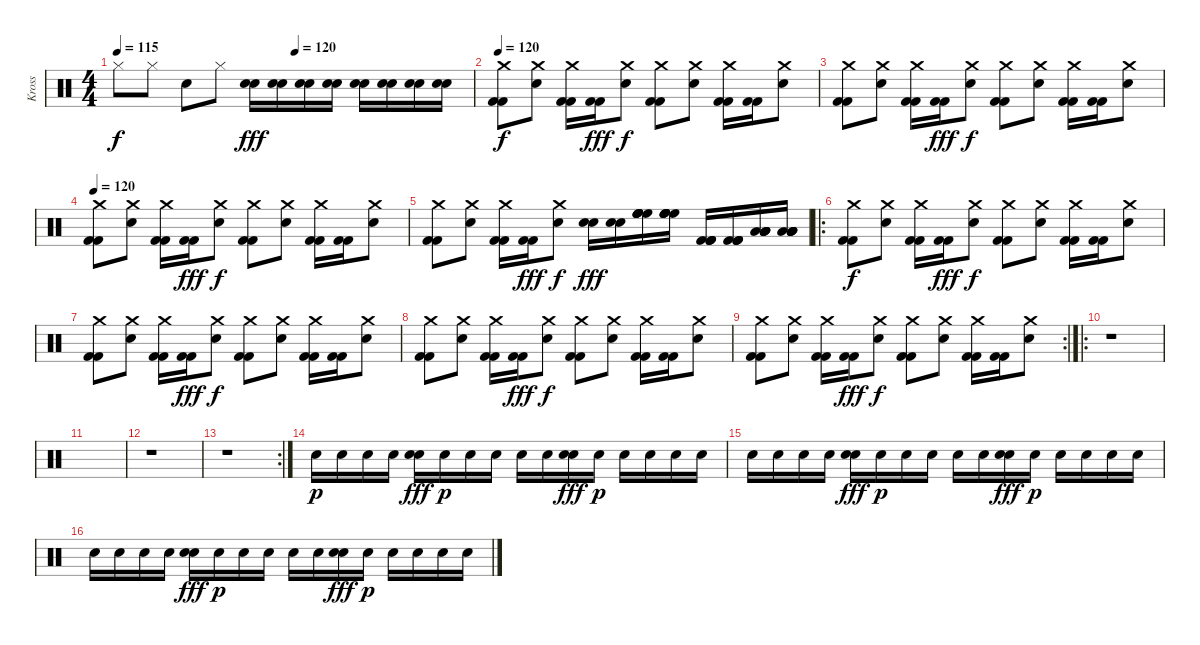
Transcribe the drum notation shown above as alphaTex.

\track ("Kross" "Kross") {instrument percussion}
\staff {score}
\articulation defaults
\ts (4 4)
\tempo (120 0.5)
\tempo 115
\clef neutral
\ks c "Hi-Hat (closed)".8{dy f} "Hi-Hat (closed)".8 "Snare (hit) 2".8 "Hi-Hat (closed)".8
("Snare (hit) 2" "Snare (hit) 2").16{dy fff} ("Snare (hit) 2" "Snare (hit) 2").16 ("Snare (hit) 2" "Snare (hit) 2").16 ("Snare (hit) 2" "Snare (hit) 2").16 ("Snare (hit) 2" "Snare (hit) 2").16 ("Snare (hit) 2" "Snare (hit) 2").16 ("Snare (hit) 2" "Snare (hit) 2").16 ("Snare (hit) 2" "Snare (hit) 2").16 |
\tempo 120
("Kick (hit) 2" "Kick (hit) 2" "Crash medium (hit)").8{dy f} ("Crash medium (hit)" "Snare (hit) 2").8 ("Kick (hit) 2" "Kick (hit) 2" "Crash medium (hit)").16 ("Kick (hit) 2" "Kick (hit) 2").16{dy fff} ("Crash medium (hit)" "Snare (hit) 2").8{dy f} ("Kick (hit) 2" "Kick (hit) 2" "Crash medium (hit)").8 ("Crash medium (hit)" "Snare (hit) 2").8 ("Kick (hit) 2" "Kick (hit) 2" "Crash medium (hit)").16 ("Kick (hit) 2" "Kick (hit) 2").16 ("Crash medium (hit)" "Snare (hit) 2").8 |
("Kick (hit) 2" "Kick (hit) 2" "Crash medium (hit)").8 ("Crash medium (hit)" "Snare (hit) 2").8 ("Kick (hit) 2" "Kick (hit) 2" "Crash medium (hit)").16 ("Kick (hit) 2" "Kick (hit) 2").16{dy fff} ("Crash medium (hit)" "Snare (hit) 2").8{dy f} ("Kick (hit) 2" "Kick (hit) 2" "Crash medium (hit)").8 ("Crash medium (hit)" "Snare (hit) 2").8 ("Kick (hit) 2" "Kick (hit) 2" "Crash medium (hit)").16 ("Kick (hit) 2" "Kick (hit) 2").16 ("Crash medium (hit)" "Snare (hit) 2").8 |
\tempo 120
("Kick (hit) 2" "Kick (hit) 2" "Crash medium (hit)").8 ("Crash medium (hit)" "Snare (hit) 2").8 ("Kick (hit) 2" "Kick (hit) 2" "Crash medium (hit)").16 ("Kick (hit) 2" "Kick (hit) 2").16{dy fff} ("Crash medium (hit)" "Snare (hit) 2").8{dy f} ("Kick (hit) 2" "Kick (hit) 2" "Crash medium (hit)").8 ("Crash medium (hit)" "Snare (hit) 2").8 ("Kick (hit) 2" "Kick (hit) 2" "Crash medium (hit)").16 ("Kick (hit) 2" "Kick (hit) 2").16 ("Crash medium (hit)" "Snare (hit) 2").8 |
("Kick (hit) 2" "Kick (hit) 2" "Crash medium (hit)").8 ("Crash medium (hit)" "Snare (hit) 2").8 ("Kick (hit) 2" "Kick (hit) 2" "Crash medium (hit)").16 ("Kick (hit) 2" "Kick (hit) 2").16{dy fff} ("Crash medium (hit)" "Snare (hit) 2").8{dy f} ("Snare (hit) 2" "Snare (hit) 2").16{dy fff} ("Snare (hit) 2" "Snare (hit) 2").16 ("High Floor Tom (hit)" "High Floor Tom (hit)" "High Floor Tom (hit)" "High Floor Tom (hit)" "High Floor Tom (hit)").16 ("High Floor Tom (hit)" "High Floor Tom (hit)" "High Floor Tom (hit)" "High Floor Tom (hit)" "High Floor Tom (hit)").16 ("Kick (hit) 2" "Kick (hit) 2" "Kick (hit) 2" "Kick (hit) 2").16 ("Kick (hit) 2" "Kick (hit) 2" "Kick (hit) 2" "Kick (hit) 2").16 ("Low Floor Tom (hit)" "Low Floor Tom (hit)" "Low Floor Tom (hit)" "Low Floor Tom (hit)" "Low Floor Tom (hit)").16 ("Low Floor Tom (hit)" "Low Floor Tom (hit)" "Low Floor Tom (hit)" "Low Floor Tom (hit)" "Low Floor Tom (hit)").16 |
\ro
("Kick (hit) 2" "Kick (hit) 2" "Crash medium (hit)").8{dy f} ("Crash medium (hit)" "Snare (hit) 2").8 ("Kick (hit) 2" "Kick (hit) 2" "Crash medium (hit)").16 ("Kick (hit) 2" "Kick (hit) 2").16{dy fff} ("Crash medium (hit)" "Snare (hit) 2").8{dy f} ("Kick (hit) 2" "Kick (hit) 2" "Crash medium (hit)").8 ("Crash medium (hit)" "Snare (hit) 2").8 ("Kick (hit) 2" "Kick (hit) 2" "Crash medium (hit)").16 ("Kick (hit) 2" "Kick (hit) 2").16 ("Crash medium (hit)" "Snare (hit) 2").8 |
("Kick (hit) 2" "Kick (hit) 2" "Crash medium (hit)").8 ("Crash medium (hit)" "Snare (hit) 2").8 ("Kick (hit) 2" "Kick (hit) 2" "Crash medium (hit)").16 ("Kick (hit) 2" "Kick (hit) 2").16{dy fff} ("Crash medium (hit)" "Snare (hit) 2").8{dy f} ("Kick (hit) 2" "Kick (hit) 2" "Crash medium (hit)").8 ("Crash medium (hit)" "Snare (hit) 2").8 ("Kick (hit) 2" "Kick (hit) 2" "Crash medium (hit)").16 ("Kick (hit) 2" "Kick (hit) 2").16 ("Crash medium (hit)" "Snare (hit) 2").8 |
("Kick (hit) 2" "Kick (hit) 2" "Crash medium (hit)").8 ("Crash medium (hit)" "Snare (hit) 2").8 ("Kick (hit) 2" "Kick (hit) 2" "Crash medium (hit)").16 ("Kick (hit) 2" "Kick (hit) 2").16{dy fff} ("Crash medium (hit)" "Snare (hit) 2").8{dy f} ("Kick (hit) 2" "Kick (hit) 2" "Crash medium (hit)").8 ("Crash medium (hit)" "Snare (hit) 2").8 ("Kick (hit) 2" "Kick (hit) 2" "Crash medium (hit)").16 ("Kick (hit) 2" "Kick (hit) 2").16 ("Crash medium (hit)" "Snare (hit) 2").8 |
\rc 2
("Kick (hit) 2" "Kick (hit) 2" "Crash medium (hit)").8 ("Crash medium (hit)" "Snare (hit) 2").8 ("Kick (hit) 2" "Kick (hit) 2" "Crash medium (hit)").16 ("Kick (hit) 2" "Kick (hit) 2").16{dy fff} ("Crash medium (hit)" "Snare (hit) 2").8{dy f} ("Kick (hit) 2" "Kick (hit) 2" "Crash medium (hit)").8 ("Crash medium (hit)" "Snare (hit) 2").8 ("Kick (hit) 2" "Kick (hit) 2" "Crash medium (hit)").16 ("Kick (hit) 2" "Kick (hit) 2").16 ("Crash medium (hit)" "Snare (hit) 2").8 |
\ro
r.1 |
|
r.1 |
\rc 2
r.1 |
"Snare (hit) 2".16{dy p} "Snare (hit) 2".16 "Snare (hit) 2".16 "Snare (hit) 2".16 ("Snare (hit) 2" "Snare (hit) 2").16{dy fff} "Snare (hit) 2".16{dy p} "Snare (hit) 2".16 "Snare (hit) 2".16 "Snare (hit) 2".16 "Snare (hit) 2".16 ("Snare (hit) 2" "Snare (hit) 2").16{dy fff} "Snare (hit) 2".16{dy p} "Snare (hit) 2".16 "Snare (hit) 2".16 "Snare (hit) 2".16 "Snare (hit) 2".16 |
"Snare (hit) 2".16 "Snare (hit) 2".16 "Snare (hit) 2".16 "Snare (hit) 2".16 ("Snare (hit) 2" "Snare (hit) 2").16{dy fff} "Snare (hit) 2".16{dy p} "Snare (hit) 2".16 "Snare (hit) 2".16 "Snare (hit) 2".16 "Snare (hit) 2".16 ("Snare (hit) 2" "Snare (hit) 2").16{dy fff} "Snare (hit) 2".16{dy p} "Snare (hit) 2".16 "Snare (hit) 2".16 "Snare (hit) 2".16 "Snare (hit) 2".16 |
"Snare (hit) 2".16 "Snare (hit) 2".16 "Snare (hit) 2".16 "Snare (hit) 2".16 ("Snare (hit) 2" "Snare (hit) 2").16{dy fff} "Snare (hit) 2".16{dy p} "Snare (hit) 2".16 "Snare (hit) 2".16 "Snare (hit) 2".16 "Snare (hit) 2".16 ("Snare (hit) 2" "Snare (hit) 2").16{dy fff} "Snare (hit) 2".16{dy p} "Snare (hit) 2".16 "Snare (hit) 2".16 "Snare (hit) 2".16 "Snare (hit) 2".16
